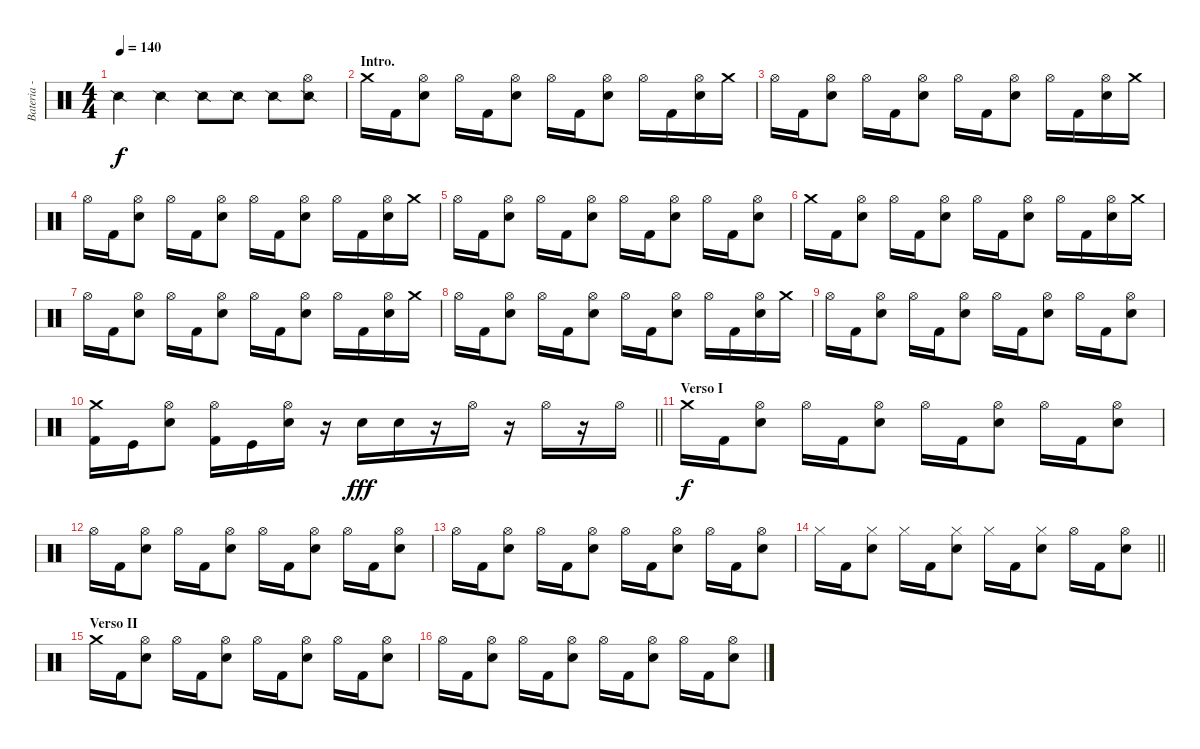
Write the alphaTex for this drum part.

\track ("Bateria - Larzon" "Bateria - ") {instrument percussion}
\staff {score}
\articulation defaults
\ts (4 4)
\tempo 140
\clef neutral
\ks c "Snare (side stick) 2".4{dy f} "Snare (side stick) 2".4 "Snare (side stick) 2".8 "Snare (side stick) 2".8 "Snare (side stick) 2".8
("Snare (side stick) 2" "Hi-Hat (open)").8 |
\section ("" "Intro.")
"Crash medium (hit)".16 "Kick (hit) 2".16 ("Electric Snare (hit)" "Hi-Hat (open)").8 "Hi-Hat (open)".16 "Kick (hit) 2".16 ("Electric Snare (hit)" "Hi-Hat (open)").8 "Hi-Hat (open)".16 "Kick (hit) 2".16 ("Electric Snare (hit)" "Hi-Hat (open)").8 "Hi-Hat (open)".16 "Kick (hit) 2".16 ("Electric Snare (hit)" "Hi-Hat (open)").16 "Crash medium (hit)".16 |
"Hi-Hat (open)".16 "Kick (hit) 2".16 ("Electric Snare (hit)" "Hi-Hat (open)").8 "Hi-Hat (open)".16 "Kick (hit) 2".16 ("Electric Snare (hit)" "Hi-Hat (open)").8 "Hi-Hat (open)".16 "Kick (hit) 2".16 ("Electric Snare (hit)" "Hi-Hat (open)").8 "Hi-Hat (open)".16 "Kick (hit) 2".16 ("Electric Snare (hit)" "Hi-Hat (open)").16 "Crash medium (hit)".16 |
"Hi-Hat (open)".16 "Kick (hit) 2".16 ("Electric Snare (hit)" "Hi-Hat (open)").8 "Hi-Hat (open)".16 "Kick (hit) 2".16 ("Electric Snare (hit)" "Hi-Hat (open)").8 "Hi-Hat (open)".16 "Kick (hit) 2".16 ("Electric Snare (hit)" "Hi-Hat (open)").8 "Hi-Hat (open)".16 "Kick (hit) 2".16 ("Electric Snare (hit)" "Hi-Hat (open)").16 "Crash medium (hit)".16 |
"Hi-Hat (open)".16 "Kick (hit) 2".16 ("Electric Snare (hit)" "Hi-Hat (open)").8 "Hi-Hat (open)".16 "Kick (hit) 2".16 ("Electric Snare (hit)" "Hi-Hat (open)").8 "Hi-Hat (open)".16 "Kick (hit) 2".16 ("Electric Snare (hit)" "Hi-Hat (open)").8 "Hi-Hat (open)".16 "Kick (hit) 2".16 ("Electric Snare (hit)" "Hi-Hat (open)").8 |
"Crash medium (hit)".16 "Kick (hit) 2".16 ("Electric Snare (hit)" "Hi-Hat (open)").8 "Hi-Hat (open)".16 "Kick (hit) 2".16 ("Electric Snare (hit)" "Hi-Hat (open)").8 "Hi-Hat (open)".16 "Kick (hit) 2".16 ("Electric Snare (hit)" "Hi-Hat (open)").8 "Hi-Hat (open)".16 "Kick (hit) 2".16 ("Electric Snare (hit)" "Hi-Hat (open)").16 "Crash medium (hit)".16 |
"Hi-Hat (open)".16 "Kick (hit) 2".16 ("Electric Snare (hit)" "Hi-Hat (open)").8 "Hi-Hat (open)".16 "Kick (hit) 2".16 ("Electric Snare (hit)" "Hi-Hat (open)").8 "Hi-Hat (open)".16 "Kick (hit) 2".16 ("Electric Snare (hit)" "Hi-Hat (open)").8 "Hi-Hat (open)".16 "Kick (hit) 2".16 ("Electric Snare (hit)" "Hi-Hat (open)").16 "Crash medium (hit)".16 |
"Hi-Hat (open)".16 "Kick (hit) 2".16 ("Electric Snare (hit)" "Hi-Hat (open)").8 "Hi-Hat (open)".16 "Kick (hit) 2".16 ("Electric Snare (hit)" "Hi-Hat (open)").8 "Hi-Hat (open)".16 "Kick (hit) 2".16 ("Electric Snare (hit)" "Hi-Hat (open)").8 "Hi-Hat (open)".16 "Kick (hit) 2".16 ("Electric Snare (hit)" "Hi-Hat (open)").16 "Crash medium (hit)".16 |
"Hi-Hat (open)".16 "Kick (hit) 2".16 ("Electric Snare (hit)" "Hi-Hat (open)").8 "Hi-Hat (open)".16 "Kick (hit) 2".16 ("Electric Snare (hit)" "Hi-Hat (open)").8 "Hi-Hat (open)".16 "Kick (hit) 2".16 ("Electric Snare (hit)" "Hi-Hat (open)").8 "Hi-Hat (open)".16 "Kick (hit) 2".16 ("Electric Snare (hit)" "Hi-Hat (open)").8 |
\barLineRight lightlight
("Kick (hit) 2" "Crash medium (hit)").16 "Kick (hit)".16 ("Electric Snare (hit)" "Hi-Hat (open)").8 ("Kick (hit) 2" "Hi-Hat (open)").16 "Kick (hit)".16 ("Electric Snare (hit)" "Hi-Hat (open)").16 r.16 "Electric Snare (hit)".16{dy fff} "Electric Snare (hit)".16 r.16 "Hi-Hat (open)".16 r.16 "Hi-Hat (open)".16 r.16 "Hi-Hat (open)".16 |
\section ("" "Verso I")
"Crash medium (hit)".16{dy f} "Kick (hit) 2".16 ("Electric Snare (hit)" "Hi-Hat (open)").8 "Hi-Hat (open)".16 "Kick (hit) 2".16 ("Electric Snare (hit)" "Hi-Hat (open)").8 "Hi-Hat (open)".16 "Kick (hit) 2".16 ("Electric Snare (hit)" "Hi-Hat (open)").8 "Hi-Hat (open)".16 "Kick (hit) 2".16 ("Electric Snare (hit)" "Hi-Hat (open)").8 |
"Hi-Hat (open)".16 "Kick (hit) 2".16 ("Electric Snare (hit)" "Hi-Hat (open)").8 "Hi-Hat (open)".16 "Kick (hit) 2".16 ("Electric Snare (hit)" "Hi-Hat (open)").8 "Hi-Hat (open)".16 "Kick (hit) 2".16 ("Electric Snare (hit)" "Hi-Hat (open)").8 "Hi-Hat (open)".16 "Kick (hit) 2".16 ("Electric Snare (hit)" "Hi-Hat (open)").8 |
"Hi-Hat (open)".16 "Kick (hit) 2".16 ("Electric Snare (hit)" "Hi-Hat (open)").8 "Hi-Hat (open)".16 "Kick (hit) 2".16 ("Electric Snare (hit)" "Hi-Hat (open)").8 "Hi-Hat (open)".16 "Kick (hit) 2".16 ("Electric Snare (hit)" "Hi-Hat (open)").8 "Hi-Hat (open)".16 "Kick (hit) 2".16 ("Electric Snare (hit)" "Hi-Hat (open)").8 |
\barLineRight lightlight "Hi-Hat (closed)".16 "Kick (hit) 2".16
("Electric Snare (hit)" "Hi-Hat (closed)").8 "Hi-Hat (closed)".16 "Kick (hit) 2".16 ("Electric Snare (hit)" "Hi-Hat (closed)").8 "Hi-Hat (closed)".16 "Kick (hit) 2".16 ("Electric Snare (hit)" "Hi-Hat (closed)").8 "Hi-Hat (open)".16 "Kick (hit) 2".16 ("Electric Snare (hit)" "Hi-Hat (open)").8 |
\section ("" "Verso II")
"Crash medium (hit)".16 "Kick (hit) 2".16 ("Electric Snare (hit)" "Hi-Hat (open)").8 "Hi-Hat (open)".16 "Kick (hit) 2".16 ("Electric Snare (hit)" "Hi-Hat (open)").8 "Hi-Hat (open)".16 "Kick (hit) 2".16 ("Electric Snare (hit)" "Hi-Hat (open)").8 "Hi-Hat (open)".16 "Kick (hit) 2".16 ("Electric Snare (hit)" "Hi-Hat (open)").8 |
"Hi-Hat (open)".16 "Kick (hit) 2".16 ("Electric Snare (hit)" "Hi-Hat (open)").8 "Hi-Hat (open)".16 "Kick (hit) 2".16 ("Electric Snare (hit)" "Hi-Hat (open)").8 "Hi-Hat (open)".16 "Kick (hit) 2".16 ("Electric Snare (hit)" "Hi-Hat (open)").8 "Hi-Hat (open)".16 "Kick (hit) 2".16 ("Electric Snare (hit)" "Hi-Hat (open)").8
